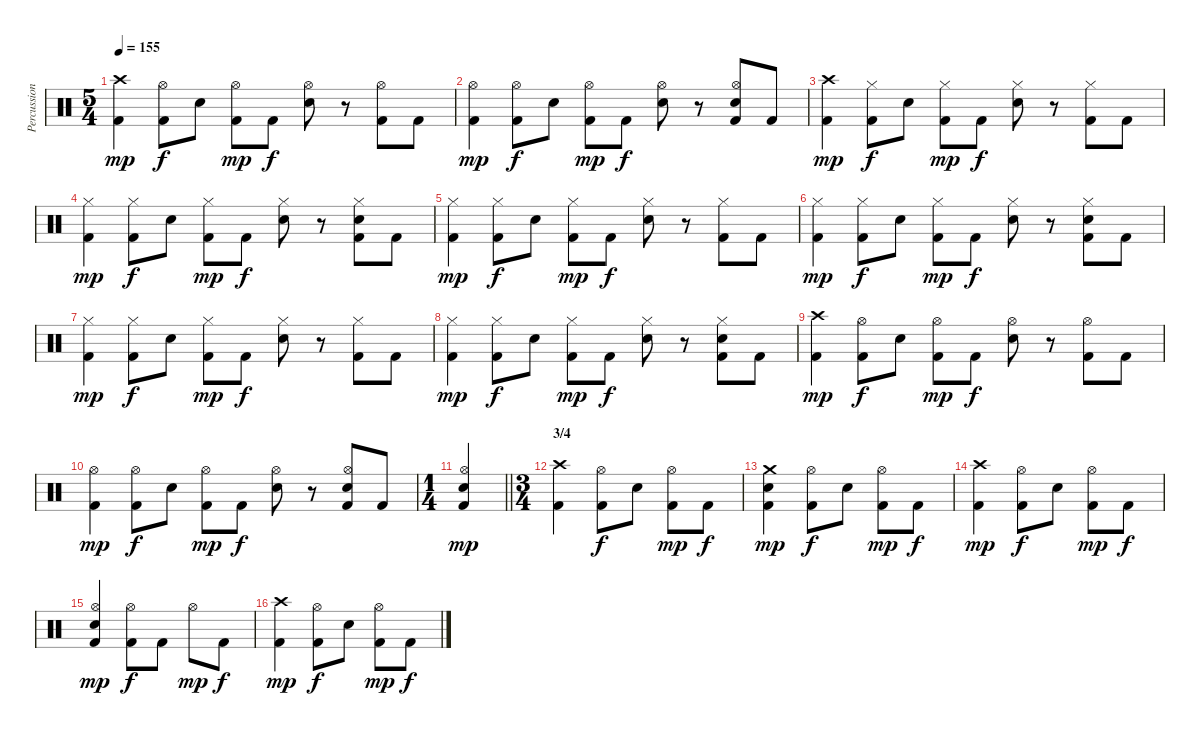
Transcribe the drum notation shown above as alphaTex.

\track ("Percussion" "Percussion") {instrument percussion}
\staff {score}
\articulation defaults
\ts (5 4)
\tempo 155
\clef neutral
\ks c
("Crash high (hit)" "Kick (hit) 2").4{dy mp} ("Hi-Hat (open)" "Kick (hit) 2").8{dy f} "Snare (hit) 2".8 ("Hi-Hat (open)" "Kick (hit) 2").8{dy mp} "Kick (hit) 2".8{dy f} ("Hi-Hat (open)" "Snare (hit) 2").8 r.8 ("Hi-Hat (open)" "Kick (hit) 2").8 "Kick (hit) 2".8 |
("Hi-Hat (open)" "Kick (hit) 2").4{dy mp} ("Hi-Hat (open)" "Kick (hit) 2").8{dy f} "Snare (hit) 2".8 ("Hi-Hat (open)" "Kick (hit) 2").8{dy mp} "Kick (hit) 2".8{dy f} ("Hi-Hat (open)" "Snare (hit) 2").8 r.8 ("Hi-Hat (open)" "Snare (hit) 2" "Kick (hit) 2").8 "Kick (hit) 2".8 |
("Crash high (hit)" "Kick (hit) 2").4{dy mp} ("Hi-Hat (closed)" "Kick (hit) 2").8{dy f} "Snare (hit) 2".8 ("Hi-Hat (closed)" "Kick (hit) 2").8{dy mp} "Kick (hit) 2".8{dy f} ("Hi-Hat (closed)" "Snare (hit) 2").8 r.8 ("Hi-Hat (closed)" "Kick (hit) 2").8 "Kick (hit) 2".8 |
("Hi-Hat (closed)" "Kick (hit) 2").4{dy mp} ("Hi-Hat (closed)" "Kick (hit) 2").8{dy f} "Snare (hit) 2".8 ("Hi-Hat (closed)" "Kick (hit) 2").8{dy mp} "Kick (hit) 2".8{dy f} ("Hi-Hat (closed)" "Snare (hit) 2").8 r.8 ("Hi-Hat (closed)" "Snare (hit) 2" "Kick (hit) 2").8 "Kick (hit) 2".8 |
("Hi-Hat (closed)" "Kick (hit) 2").4{dy mp} ("Hi-Hat (closed)" "Kick (hit) 2").8{dy f} "Snare (hit) 2".8 ("Hi-Hat (closed)" "Kick (hit) 2").8{dy mp} "Kick (hit) 2".8{dy f} ("Hi-Hat (closed)" "Snare (hit) 2").8 r.8 ("Hi-Hat (closed)" "Kick (hit) 2").8 "Kick (hit) 2".8 |
("Hi-Hat (closed)" "Kick (hit) 2").4{dy mp} ("Hi-Hat (closed)" "Kick (hit) 2").8{dy f} "Snare (hit) 2".8 ("Hi-Hat (closed)" "Kick (hit) 2").8{dy mp} "Kick (hit) 2".8{dy f} ("Hi-Hat (closed)" "Snare (hit) 2").8 r.8 ("Hi-Hat (closed)" "Snare (hit) 2" "Kick (hit) 2").8 "Kick (hit) 2".8 |
("Hi-Hat (closed)" "Kick (hit) 2").4{dy mp} ("Hi-Hat (closed)" "Kick (hit) 2").8{dy f} "Snare (hit) 2".8 ("Hi-Hat (closed)" "Kick (hit) 2").8{dy mp} "Kick (hit) 2".8{dy f} ("Hi-Hat (closed)" "Snare (hit) 2").8 r.8 ("Hi-Hat (closed)" "Kick (hit) 2").8 "Kick (hit) 2".8 |
("Hi-Hat (closed)" "Kick (hit) 2").4{dy mp} ("Hi-Hat (closed)" "Kick (hit) 2").8{dy f} "Snare (hit) 2".8 ("Hi-Hat (closed)" "Kick (hit) 2").8{dy mp} "Kick (hit) 2".8{dy f} ("Hi-Hat (closed)" "Snare (hit) 2").8 r.8 ("Hi-Hat (closed)" "Snare (hit) 2" "Kick (hit) 2").8 "Kick (hit) 2".8 |
("Crash high (hit)" "Kick (hit) 2").4{dy mp} ("Hi-Hat (open)" "Kick (hit) 2").8{dy f} "Snare (hit) 2".8 ("Hi-Hat (open)" "Kick (hit) 2").8{dy mp} "Kick (hit) 2".8{dy f} ("Hi-Hat (open)" "Snare (hit) 2").8 r.8 ("Hi-Hat (open)" "Kick (hit) 2").8 "Kick (hit) 2".8 |
("Hi-Hat (open)" "Kick (hit) 2").4{dy mp} ("Hi-Hat (open)" "Kick (hit) 2").8{dy f} "Snare (hit) 2".8 ("Hi-Hat (open)" "Kick (hit) 2").8{dy mp} "Kick (hit) 2".8{dy f} ("Hi-Hat (open)" "Snare (hit) 2").8 r.8 ("Hi-Hat (open)" "Snare (hit) 2" "Kick (hit) 2").8 "Kick (hit) 2".8 |
\ts (1 4)
\barLineRight lightlight
("Hi-Hat (open)" "Snare (hit) 2" "Kick (hit) 2").4{dy mp} |
\ts (3 4)
\section ("" "3/4")
("Crash high (hit)" "Kick (hit) 2").4 ("Hi-Hat (open)" "Kick (hit) 2").8{dy f} "Snare (hit) 2".8 ("Hi-Hat (open)" "Kick (hit) 2").8{dy mp} "Kick (hit) 2".8{dy f} |
("Crash medium (hit)" "Snare (hit) 2" "Kick (hit) 2").4{dy mp} ("Hi-Hat (open)" "Kick (hit) 2").8{dy f} "Snare (hit) 2".8 ("Hi-Hat (open)" "Kick (hit) 2").8{dy mp} "Kick (hit) 2".8{dy f} |
("Crash high (hit)" "Kick (hit) 2").4{dy mp} ("Hi-Hat (open)" "Kick (hit) 2").8{dy f} "Snare (hit) 2".8 ("Hi-Hat (open)" "Kick (hit) 2").8{dy mp} "Kick (hit) 2".8{dy f} |
("Hi-Hat (open)" "Snare (hit) 2" "Kick (hit) 2").4{dy mp} ("Hi-Hat (open)" "Kick (hit) 2").8{dy f} "Kick (hit) 2".8 "Hi-Hat (open)".8{dy mp} "Kick (hit) 2".8{dy f} |
("Crash high (hit)" "Kick (hit) 2").4{dy mp} ("Hi-Hat (open)" "Kick (hit) 2").8{dy f} "Snare (hit) 2".8 ("Hi-Hat (open)" "Kick (hit) 2").8{dy mp} "Kick (hit) 2".8{dy f}
